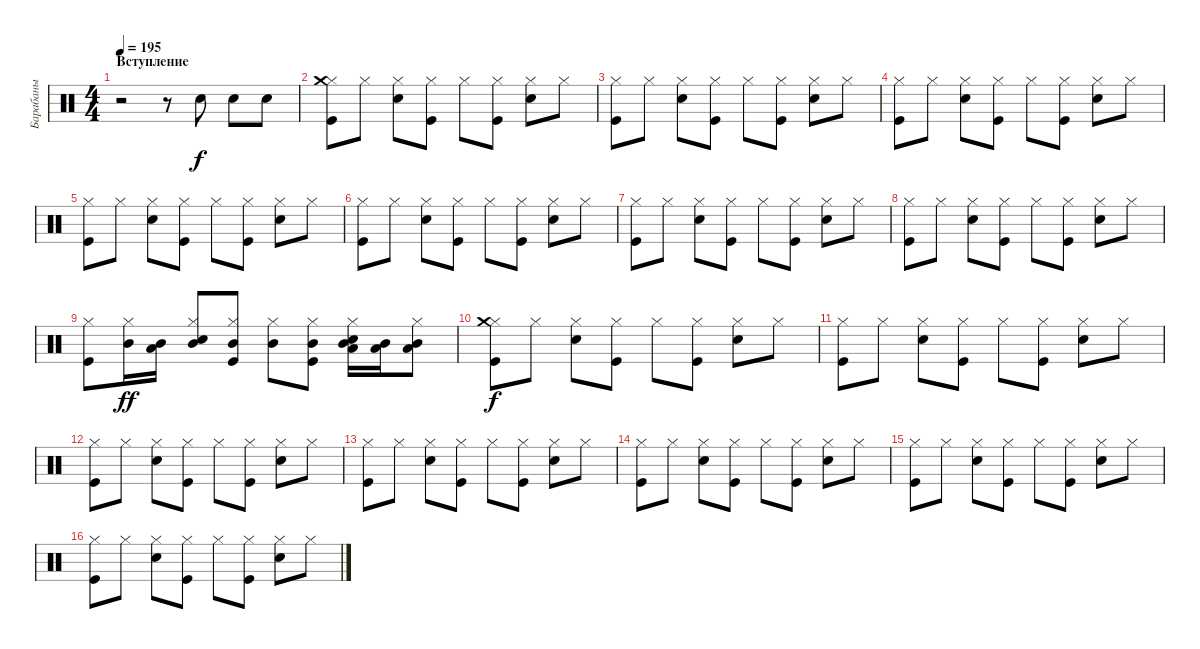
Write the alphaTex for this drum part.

\track ("Барабаны" "Барабаны") {instrument percussion}
\staff {score}
\articulation defaults
\ts (4 4)
\section ("" "Вступление")
\tempo 195
\clef neutral
\ks c
r.2{dy f} r.8 "Snare (hit) 2".8 "Snare (hit) 2".8 "Snare (hit) 2".8 |
("Kick (hit)" "Hi-Hat (closed)" "Crash medium (hit)").8 "Hi-Hat (closed)".8 ("Snare (hit) 2" "Hi-Hat (closed)").8 ("Kick (hit)" "Hi-Hat (closed)").8 "Hi-Hat (closed)".8 ("Kick (hit)" "Hi-Hat (closed)").8 ("Snare (hit) 2" "Hi-Hat (closed)").8 "Hi-Hat (closed)".8 |
("Kick (hit)" "Hi-Hat (closed)").8 "Hi-Hat (closed)".8 ("Snare (hit) 2" "Hi-Hat (closed)").8 ("Kick (hit)" "Hi-Hat (closed)").8 "Hi-Hat (closed)".8 ("Kick (hit)" "Hi-Hat (closed)").8 ("Snare (hit) 2" "Hi-Hat (closed)").8 "Hi-Hat (closed)".8 |
("Kick (hit)" "Hi-Hat (closed)").8 "Hi-Hat (closed)".8 ("Snare (hit) 2" "Hi-Hat (closed)").8 ("Kick (hit)" "Hi-Hat (closed)").8 "Hi-Hat (closed)".8 ("Kick (hit)" "Hi-Hat (closed)").8 ("Snare (hit) 2" "Hi-Hat (closed)").8 "Hi-Hat (closed)".8 |
("Kick (hit)" "Hi-Hat (closed)").8 "Hi-Hat (closed)".8 ("Snare (hit) 2" "Hi-Hat (closed)").8 ("Kick (hit)" "Hi-Hat (closed)").8 "Hi-Hat (closed)".8 ("Kick (hit)" "Hi-Hat (closed)").8 ("Snare (hit) 2" "Hi-Hat (closed)").8 "Hi-Hat (closed)".8 |
("Kick (hit)" "Hi-Hat (closed)").8 "Hi-Hat (closed)".8 ("Snare (hit) 2" "Hi-Hat (closed)").8 ("Kick (hit)" "Hi-Hat (closed)").8 "Hi-Hat (closed)".8 ("Kick (hit)" "Hi-Hat (closed)").8 ("Snare (hit) 2" "Hi-Hat (closed)").8 "Hi-Hat (closed)".8 |
("Kick (hit)" "Hi-Hat (closed)").8 "Hi-Hat (closed)".8 ("Snare (hit) 2" "Hi-Hat (closed)").8 ("Kick (hit)" "Hi-Hat (closed)").8 "Hi-Hat (closed)".8 ("Kick (hit)" "Hi-Hat (closed)").8 ("Snare (hit) 2" "Hi-Hat (closed)").8 "Hi-Hat (closed)".8 |
("Kick (hit)" "Hi-Hat (closed)").8 "Hi-Hat (closed)".8 ("Snare (hit) 2" "Hi-Hat (closed)").8 ("Kick (hit)" "Hi-Hat (closed)").8 "Hi-Hat (closed)".8 ("Kick (hit)" "Hi-Hat (closed)").8 ("Snare (hit) 2" "Hi-Hat (closed)").8 "Hi-Hat (closed)".8 |
("Kick (hit)" "Hi-Hat (closed)").8 ("Hi-Hat (closed)" "Mid Tom (hit)").16{dy ff} ("Mid Tom (hit)" "Low Tom (hit)").16 ("Snare (hit) 2" "Hi-Hat (closed)" "Mid Tom (hit)").8 ("Kick (hit)" "Hi-Hat (closed)" "Mid Tom (hit)").8 ("Hi-Hat (closed)" "Mid Tom (hit)").8 ("Kick (hit)" "Hi-Hat (closed)" "Mid Tom (hit)").8 ("Snare (hit) 2" "Hi-Hat (closed)" "Mid Tom (hit)" "Low Floor Tom (hit)").16 ("Mid Tom (hit)" "Low Floor Tom (hit)").16 ("Hi-Hat (closed)" "Mid Tom (hit)" "Low Floor Tom (hit)").8 |
("Kick (hit)" "Hi-Hat (closed)" "Crash medium (hit)").8{dy f} "Hi-Hat (closed)".8 ("Snare (hit) 2" "Hi-Hat (closed)").8 ("Kick (hit)" "Hi-Hat (closed)").8 "Hi-Hat (closed)".8 ("Kick (hit)" "Hi-Hat (closed)").8 ("Snare (hit) 2" "Hi-Hat (closed)").8 "Hi-Hat (closed)".8 |
("Kick (hit)" "Hi-Hat (closed)").8 "Hi-Hat (closed)".8 ("Snare (hit) 2" "Hi-Hat (closed)").8 ("Kick (hit)" "Hi-Hat (closed)").8 "Hi-Hat (closed)".8 ("Kick (hit)" "Hi-Hat (closed)").8 ("Snare (hit) 2" "Hi-Hat (closed)").8 "Hi-Hat (closed)".8 |
("Kick (hit)" "Hi-Hat (closed)").8 "Hi-Hat (closed)".8 ("Snare (hit) 2" "Hi-Hat (closed)").8 ("Kick (hit)" "Hi-Hat (closed)").8 "Hi-Hat (closed)".8 ("Kick (hit)" "Hi-Hat (closed)").8 ("Snare (hit) 2" "Hi-Hat (closed)").8 "Hi-Hat (closed)".8 |
("Kick (hit)" "Hi-Hat (closed)").8 "Hi-Hat (closed)".8 ("Snare (hit) 2" "Hi-Hat (closed)").8 ("Kick (hit)" "Hi-Hat (closed)").8 "Hi-Hat (closed)".8 ("Kick (hit)" "Hi-Hat (closed)").8 ("Snare (hit) 2" "Hi-Hat (closed)").8 "Hi-Hat (closed)".8 |
("Kick (hit)" "Hi-Hat (closed)").8 "Hi-Hat (closed)".8 ("Snare (hit) 2" "Hi-Hat (closed)").8 ("Kick (hit)" "Hi-Hat (closed)").8 "Hi-Hat (closed)".8 ("Kick (hit)" "Hi-Hat (closed)").8 ("Snare (hit) 2" "Hi-Hat (closed)").8 "Hi-Hat (closed)".8 |
("Kick (hit)" "Hi-Hat (closed)").8 "Hi-Hat (closed)".8 ("Snare (hit) 2" "Hi-Hat (closed)").8 ("Kick (hit)" "Hi-Hat (closed)").8 "Hi-Hat (closed)".8 ("Kick (hit)" "Hi-Hat (closed)").8 ("Snare (hit) 2" "Hi-Hat (closed)").8 "Hi-Hat (closed)".8 |
("Kick (hit)" "Hi-Hat (closed)").8 "Hi-Hat (closed)".8 ("Snare (hit) 2" "Hi-Hat (closed)").8 ("Kick (hit)" "Hi-Hat (closed)").8 "Hi-Hat (closed)".8 ("Kick (hit)" "Hi-Hat (closed)").8 ("Snare (hit) 2" "Hi-Hat (closed)").8 "Hi-Hat (closed)".8
